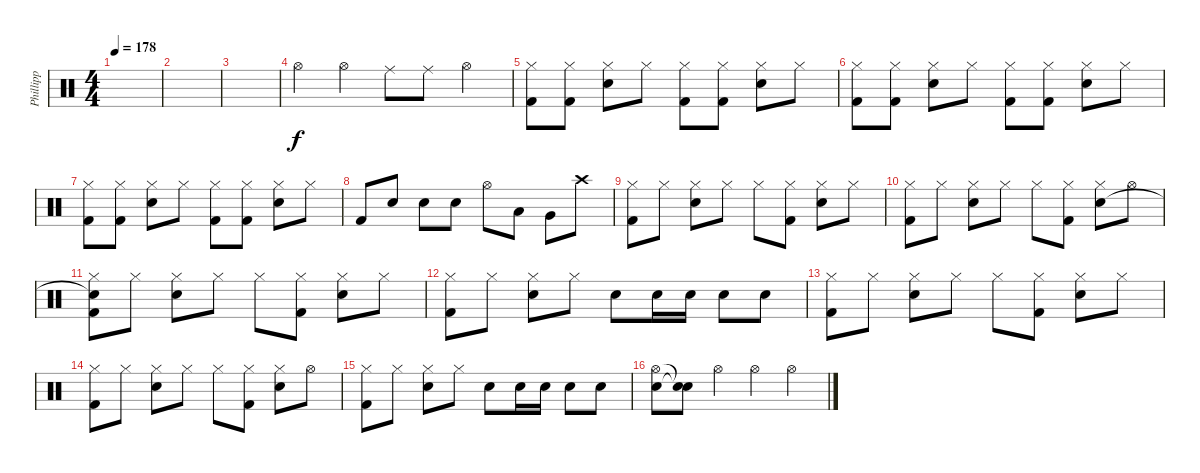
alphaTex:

\track ("Phillipp" "Phillipp") {instrument percussion}
\staff {score}
\articulation defaults
\ts (4 4)
\tempo 178
\clef neutral
\ks c
|
|
|
"Hi-Hat (open)".4 "Hi-Hat (open)".4 "Ride (middle)".8 "Ride (middle)".8 "Hi-Hat (open)".4 |
("Kick (hit) 2" "Hi-Hat (closed)").8 ("Kick (hit) 2" "Hi-Hat (closed)").8 ("Electric Snare (hit)" "Hi-Hat (closed)").8 "Hi-Hat (closed)".8 ("Kick (hit) 2" "Hi-Hat (closed)").8 ("Kick (hit) 2" "Hi-Hat (closed)").8 ("Electric Snare (hit)" "Hi-Hat (closed)").8 "Hi-Hat (closed)".8 |
("Kick (hit) 2" "Hi-Hat (closed)").8 ("Kick (hit) 2" "Hi-Hat (closed)").8 ("Electric Snare (hit)" "Hi-Hat (closed)").8 "Hi-Hat (closed)".8 ("Kick (hit) 2" "Hi-Hat (closed)").8 ("Kick (hit) 2" "Hi-Hat (closed)").8 ("Electric Snare (hit)" "Hi-Hat (closed)").8 "Hi-Hat (closed)".8 |
("Kick (hit) 2" "Hi-Hat (closed)").8 ("Kick (hit) 2" "Hi-Hat (closed)").8 ("Electric Snare (hit)" "Hi-Hat (closed)").8 "Hi-Hat (closed)".8 ("Kick (hit) 2" "Hi-Hat (closed)").8 ("Kick (hit) 2" "Hi-Hat (closed)").8 ("Electric Snare (hit)" "Hi-Hat (closed)").8 "Hi-Hat (closed)".8 |
"Kick (hit) 2".8 "Electric Snare (hit)".8 "Electric Snare (hit)".8 "Electric Snare (hit)".8 "Hi-Hat (open)".8 "Low Tom (hit)".8 "Very Low Tom (hit)".8 "Crash high (hit)".8 |
("Hi-Hat (closed)" "Kick (hit) 2").8 "Hi-Hat (closed)".8 ("Hi-Hat (closed)" "Electric Snare (hit)").8 "Hi-Hat (closed)".8 "Hi-Hat (closed)".8 ("Hi-Hat (closed)" "Kick (hit) 2").8 ("Hi-Hat (closed)" "Electric Snare (hit)").8 "Hi-Hat (closed)".8 |
("Hi-Hat (closed)" "Kick (hit) 2").8 "Hi-Hat (closed)".8 ("Hi-Hat (closed)" "Electric Snare (hit)").8 "Hi-Hat (closed)".8 "Hi-Hat (closed)".8 ("Hi-Hat (closed)" "Kick (hit) 2").8 ("Hi-Hat (closed)" "Electric Snare (hit)").8 "Hi-Hat (open)".8 |
("Hi-Hat (closed)" "Snare (hit)"{t} "Kick (hit) 2").8 "Hi-Hat (closed)".8 ("Hi-Hat (closed)" "Electric Snare (hit)").8 "Hi-Hat (closed)".8 "Hi-Hat (closed)".8 ("Hi-Hat (closed)" "Kick (hit) 2").8 ("Hi-Hat (closed)" "Electric Snare (hit)").8 "Hi-Hat (closed)".8 |
("Hi-Hat (closed)" "Kick (hit) 2").8 "Hi-Hat (closed)".8 ("Hi-Hat (closed)" "Electric Snare (hit)").8 "Hi-Hat (closed)".8 "Electric Snare (hit)".8 "Electric Snare (hit)".16 "Electric Snare (hit)".16 "Electric Snare (hit)".8 "Electric Snare (hit)".8 |
("Hi-Hat (closed)" "Kick (hit) 2").8 "Hi-Hat (closed)".8 ("Hi-Hat (closed)" "Electric Snare (hit)").8 "Hi-Hat (closed)".8 "Hi-Hat (closed)".8 ("Hi-Hat (closed)" "Kick (hit) 2").8 ("Hi-Hat (closed)" "Electric Snare (hit)").8 "Hi-Hat (closed)".8 |
("Hi-Hat (closed)" "Kick (hit) 2").8 "Hi-Hat (closed)".8 ("Hi-Hat (closed)" "Electric Snare (hit)").8 "Hi-Hat (closed)".8 "Hi-Hat (closed)".8 ("Hi-Hat (closed)" "Kick (hit) 2").8 ("Hi-Hat (closed)" "Electric Snare (hit)").8 "Hi-Hat (open)".8 |
("Hi-Hat (closed)" "Kick (hit) 2").8 "Hi-Hat (closed)".8 ("Hi-Hat (closed)" "Electric Snare (hit)").8 "Hi-Hat (closed)".8 "Electric Snare (hit)".8 "Electric Snare (hit)".16 "Electric Snare (hit)".16 "Electric Snare (hit)".8 "Electric Snare (hit)".8 |
("Electric Snare (hit)" "Hi-Hat (open)").8 ("Snare (hit)"{t} "Snare (hit)"{t}).8 "Hi-Hat (open)".4 "Hi-Hat (open)".4 "Hi-Hat (open)".4
